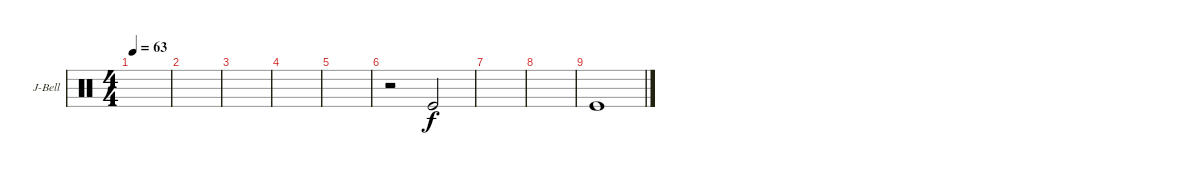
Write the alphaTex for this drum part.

\defaultSystemsLayout 4
\bracketExtendMode groupsimilarinstruments
\firstSystemTrackNameOrientation horizontal
\otherSystemsTrackNameOrientation horizontal
\track ("Jingle Bell" "J-Bell") {instrument percussion}
\staff {score}
\articulation defaults
\ts (4 4)
\tempo 63
\clef neutral
\ks c
|
|
|
|
|
r.2 "Kick (hit)".2 |
|
|
"Kick (hit)".1
